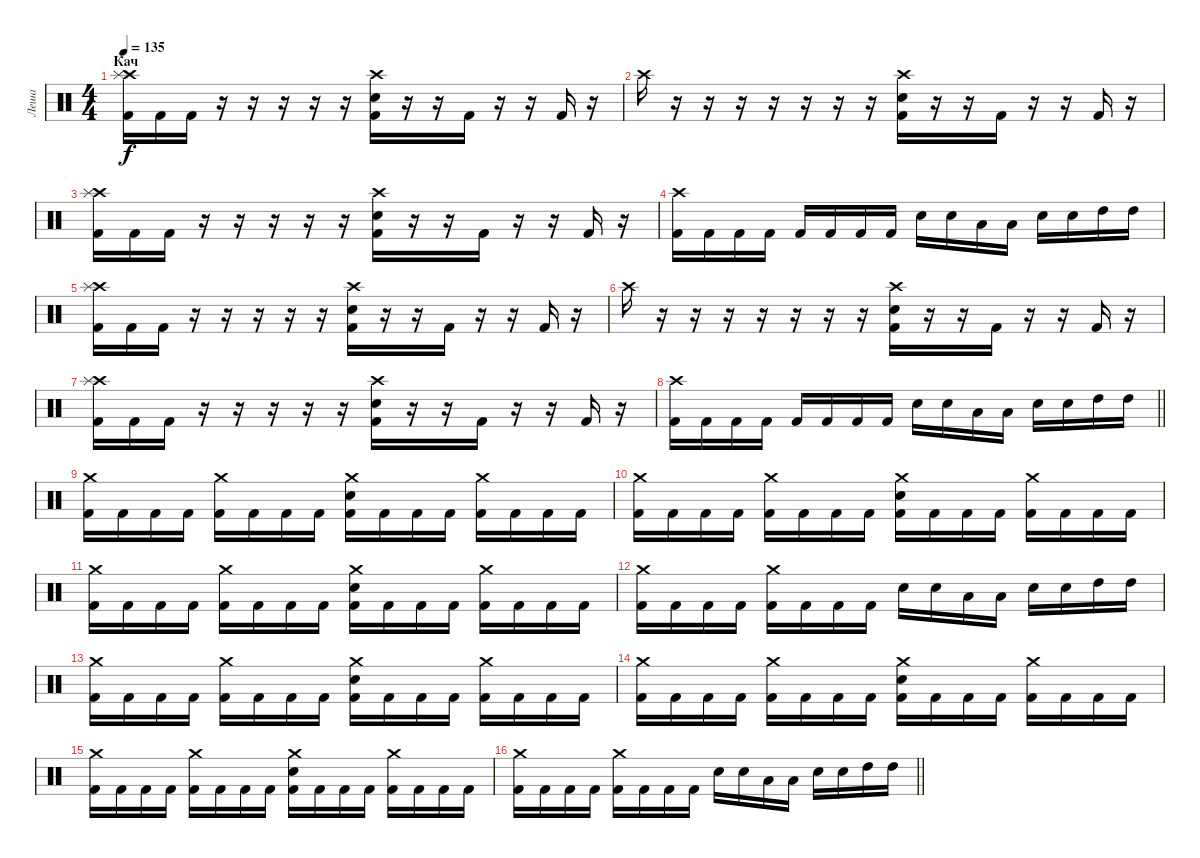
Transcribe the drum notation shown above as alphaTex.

\track ("Леша" "Леша") {instrument percussion}
\staff {score}
\articulation defaults
\ts (4 4)
\section ("" "Кач")
\tempo 135
\clef neutral
\ks c
("Crash high (hit)" "Splash (hit)" "Kick (hit) 2").16{dy f} "Kick (hit) 2".16 "Kick (hit) 2".16 r.16 r.16 r.16 r.16 r.16 ("Crash high (hit)" "Electric Snare (hit)" "Kick (hit) 2").16 r.16 r.16 "Kick (hit) 2".16 r.16 r.16 "Kick (hit) 2".16 r.16 |
"Crash high (hit)".16 r.16 r.16 r.16 r.16 r.16 r.16 r.16 ("Crash high (hit)" "Electric Snare (hit)" "Kick (hit) 2").16 r.16 r.16 "Kick (hit) 2".16 r.16 r.16 "Kick (hit) 2".16 r.16 |
("Crash high (hit)" "Splash (hit)" "Kick (hit) 2").16 "Kick (hit) 2".16 "Kick (hit) 2".16 r.16 r.16 r.16 r.16 r.16 ("Crash high (hit)" "Electric Snare (hit)" "Kick (hit) 2").16 r.16 r.16 "Kick (hit) 2".16 r.16 r.16 "Kick (hit) 2".16 r.16 |
("Crash high (hit)" "Kick (hit) 2").16 "Kick (hit) 2".16 "Kick (hit) 2".16 "Kick (hit) 2".16 "Kick (hit) 2".16 "Kick (hit) 2".16 "Kick (hit) 2".16 "Kick (hit) 2".16 "Electric Snare (hit)".16 "Electric Snare (hit)".16 "Low Tom (hit)".16 "Low Tom (hit)".16 "Electric Snare (hit)".16 "Electric Snare (hit)".16 "High Tom (hit)".16 "High Tom (hit)".16 |
("Crash high (hit)" "Splash (hit)" "Kick (hit) 2").16 "Kick (hit) 2".16 "Kick (hit) 2".16 r.16 r.16 r.16 r.16 r.16 ("Crash high (hit)" "Electric Snare (hit)" "Kick (hit) 2").16 r.16 r.16 "Kick (hit) 2".16 r.16 r.16 "Kick (hit) 2".16 r.16 |
"Crash high (hit)".16 r.16 r.16 r.16 r.16 r.16 r.16 r.16 ("Crash high (hit)" "Electric Snare (hit)" "Kick (hit) 2").16 r.16 r.16 "Kick (hit) 2".16 r.16 r.16 "Kick (hit) 2".16 r.16 |
("Crash high (hit)" "Splash (hit)" "Kick (hit) 2").16 "Kick (hit) 2".16 "Kick (hit) 2".16 r.16 r.16 r.16 r.16 r.16 ("Crash high (hit)" "Electric Snare (hit)" "Kick (hit) 2").16 r.16 r.16 "Kick (hit) 2".16 r.16 r.16 "Kick (hit) 2".16 r.16 |
\barLineRight lightlight
("Crash high (hit)" "Kick (hit) 2").16 "Kick (hit) 2".16 "Kick (hit) 2".16 "Kick (hit) 2".16 "Kick (hit) 2".16 "Kick (hit) 2".16 "Kick (hit) 2".16 "Kick (hit) 2".16 "Electric Snare (hit)".16 "Electric Snare (hit)".16 "Low Tom (hit)".16 "Low Tom (hit)".16 "Electric Snare (hit)".16 "Electric Snare (hit)".16 "High Tom (hit)".16 "High Tom (hit)".16 |
("Crash medium (hit)" "Kick (hit) 2").16 "Kick (hit) 2".16 "Kick (hit) 2".16 "Kick (hit) 2".16 ("Crash medium (hit)" "Kick (hit) 2").16 "Kick (hit) 2".16 "Kick (hit) 2".16 "Kick (hit) 2".16 ("Crash medium (hit)" "Electric Snare (hit)" "Kick (hit) 2").16 "Kick (hit) 2".16 "Kick (hit) 2".16 "Kick (hit) 2".16 ("Crash medium (hit)" "Kick (hit) 2").16 "Kick (hit) 2".16 "Kick (hit) 2".16 "Kick (hit) 2".16 |
("Crash medium (hit)" "Kick (hit) 2").16 "Kick (hit) 2".16 "Kick (hit) 2".16 "Kick (hit) 2".16 ("Crash medium (hit)" "Kick (hit) 2").16 "Kick (hit) 2".16 "Kick (hit) 2".16 "Kick (hit) 2".16 ("Crash medium (hit)" "Electric Snare (hit)" "Kick (hit) 2").16 "Kick (hit) 2".16 "Kick (hit) 2".16 "Kick (hit) 2".16 ("Crash medium (hit)" "Kick (hit) 2").16 "Kick (hit) 2".16 "Kick (hit) 2".16 "Kick (hit) 2".16 |
("Crash medium (hit)" "Kick (hit) 2").16 "Kick (hit) 2".16 "Kick (hit) 2".16 "Kick (hit) 2".16 ("Crash medium (hit)" "Kick (hit) 2").16 "Kick (hit) 2".16 "Kick (hit) 2".16 "Kick (hit) 2".16 ("Crash medium (hit)" "Electric Snare (hit)" "Kick (hit) 2").16 "Kick (hit) 2".16 "Kick (hit) 2".16 "Kick (hit) 2".16 ("Crash medium (hit)" "Kick (hit) 2").16 "Kick (hit) 2".16 "Kick (hit) 2".16 "Kick (hit) 2".16 |
("Crash medium (hit)" "Kick (hit) 2").16 "Kick (hit) 2".16 "Kick (hit) 2".16 "Kick (hit) 2".16 ("Crash medium (hit)" "Kick (hit) 2").16 "Kick (hit) 2".16 "Kick (hit) 2".16 "Kick (hit) 2".16 "Electric Snare (hit)".16 "Electric Snare (hit)".16 "Low Tom (hit)".16 "Low Tom (hit)".16 "Electric Snare (hit)".16 "Electric Snare (hit)".16 "High Tom (hit)".16 "High Tom (hit)".16 |
("Crash medium (hit)" "Kick (hit) 2").16 "Kick (hit) 2".16 "Kick (hit) 2".16 "Kick (hit) 2".16 ("Crash medium (hit)" "Kick (hit) 2").16 "Kick (hit) 2".16 "Kick (hit) 2".16 "Kick (hit) 2".16 ("Crash medium (hit)" "Electric Snare (hit)" "Kick (hit) 2").16 "Kick (hit) 2".16 "Kick (hit) 2".16 "Kick (hit) 2".16 ("Crash medium (hit)" "Kick (hit) 2").16 "Kick (hit) 2".16 "Kick (hit) 2".16 "Kick (hit) 2".16 |
("Crash medium (hit)" "Kick (hit) 2").16 "Kick (hit) 2".16 "Kick (hit) 2".16 "Kick (hit) 2".16 ("Crash medium (hit)" "Kick (hit) 2").16 "Kick (hit) 2".16 "Kick (hit) 2".16 "Kick (hit) 2".16 ("Crash medium (hit)" "Electric Snare (hit)" "Kick (hit) 2").16 "Kick (hit) 2".16 "Kick (hit) 2".16 "Kick (hit) 2".16 ("Crash medium (hit)" "Kick (hit) 2").16 "Kick (hit) 2".16 "Kick (hit) 2".16 "Kick (hit) 2".16 |
("Crash medium (hit)" "Kick (hit) 2").16 "Kick (hit) 2".16 "Kick (hit) 2".16 "Kick (hit) 2".16 ("Crash medium (hit)" "Kick (hit) 2").16 "Kick (hit) 2".16 "Kick (hit) 2".16 "Kick (hit) 2".16 ("Crash medium (hit)" "Electric Snare (hit)" "Kick (hit) 2").16 "Kick (hit) 2".16 "Kick (hit) 2".16 "Kick (hit) 2".16 ("Crash medium (hit)" "Kick (hit) 2").16 "Kick (hit) 2".16 "Kick (hit) 2".16 "Kick (hit) 2".16 |
\barLineRight lightlight
("Crash medium (hit)" "Kick (hit) 2").16 "Kick (hit) 2".16 "Kick (hit) 2".16 "Kick (hit) 2".16 ("Crash medium (hit)" "Kick (hit) 2").16 "Kick (hit) 2".16 "Kick (hit) 2".16 "Kick (hit) 2".16 "Electric Snare (hit)".16 "Electric Snare (hit)".16 "Low Tom (hit)".16 "Low Tom (hit)".16 "Electric Snare (hit)".16 "Electric Snare (hit)".16 "High Tom (hit)".16 "High Tom (hit)".16
